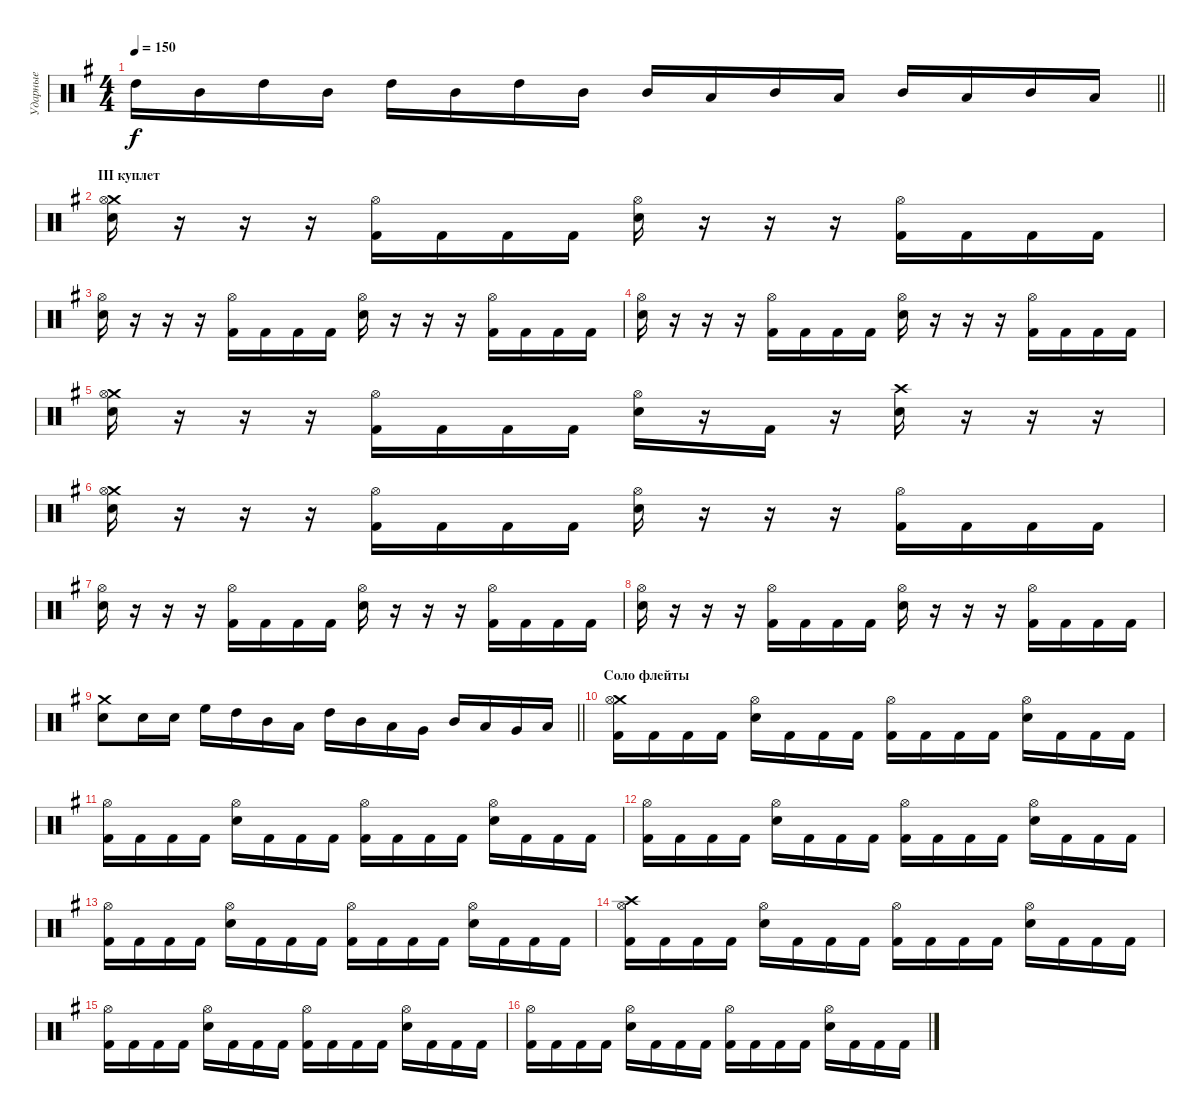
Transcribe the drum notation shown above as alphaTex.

\track ("Ударные" "Ударные") {instrument percussion}
\staff {score}
\articulation defaults
\ts (4 4)
\tempo 150
\clef neutral
\barLineRight lightlight
\ks eminor "High Tom (hit)".16{dy f} "Mid Tom (hit)".16 "High Tom (hit)".16 "Mid Tom (hit)".16 "High Tom (hit)".16 "Mid Tom (hit)".16 "High Tom (hit)".16 "Mid Tom (hit)".16 "Mid Tom (hit)".16 "Low Tom (hit)".16 "Mid Tom (hit)".16 "Low Tom (hit)".16 "Mid Tom (hit)".16 "Low Tom (hit)".16 "Mid Tom (hit)".16 "Low Tom (hit)".16
|
\section ("" "III куплет")
("Crash medium (hit)" "Electric Snare (hit)" "Hi-Hat (open)").16 r.16 r.16 r.16 ("Kick (hit) 2" "Hi-Hat (open)").16 "Kick (hit) 2".16 "Kick (hit) 2".16 "Kick (hit) 2".16 ("Electric Snare (hit)" "Hi-Hat (open)").16 r.16 r.16 r.16 ("Kick (hit) 2" "Hi-Hat (open)").16 "Kick (hit) 2".16 "Kick (hit) 2".16 "Kick (hit) 2".16 |
("Electric Snare (hit)" "Hi-Hat (open)").16 r.16 r.16 r.16 ("Kick (hit) 2" "Hi-Hat (open)").16 "Kick (hit) 2".16 "Kick (hit) 2".16 "Kick (hit) 2".16 ("Electric Snare (hit)" "Hi-Hat (open)").16 r.16 r.16 r.16 ("Kick (hit) 2" "Hi-Hat (open)").16 "Kick (hit) 2".16 "Kick (hit) 2".16 "Kick (hit) 2".16 |
("Electric Snare (hit)" "Hi-Hat (open)").16 r.16 r.16 r.16 ("Kick (hit) 2" "Hi-Hat (open)").16 "Kick (hit) 2".16 "Kick (hit) 2".16 "Kick (hit) 2".16 ("Electric Snare (hit)" "Hi-Hat (open)").16 r.16 r.16 r.16 ("Kick (hit) 2" "Hi-Hat (open)").16 "Kick (hit) 2".16 "Kick (hit) 2".16 "Kick (hit) 2".16 |
("Crash medium (hit)" "Electric Snare (hit)" "Hi-Hat (open)").16 r.16 r.16 r.16 ("Kick (hit) 2" "Hi-Hat (open)").16 "Kick (hit) 2".16 "Kick (hit) 2".16 "Kick (hit) 2".16 ("Electric Snare (hit)" "Hi-Hat (open)").16 r.16 "Kick (hit) 2".16 r.16 ("Crash high (hit)" "Electric Snare (hit)").16 r.16 r.16 r.16 |
("Crash medium (hit)" "Electric Snare (hit)" "Hi-Hat (open)").16 r.16 r.16 r.16 ("Kick (hit) 2" "Hi-Hat (open)").16 "Kick (hit) 2".16 "Kick (hit) 2".16 "Kick (hit) 2".16 ("Electric Snare (hit)" "Hi-Hat (open)").16 r.16 r.16 r.16 ("Kick (hit) 2" "Hi-Hat (open)").16 "Kick (hit) 2".16 "Kick (hit) 2".16 "Kick (hit) 2".16 |
("Electric Snare (hit)" "Hi-Hat (open)").16 r.16 r.16 r.16 ("Kick (hit) 2" "Hi-Hat (open)").16 "Kick (hit) 2".16 "Kick (hit) 2".16 "Kick (hit) 2".16 ("Electric Snare (hit)" "Hi-Hat (open)").16 r.16 r.16 r.16 ("Kick (hit) 2" "Hi-Hat (open)").16 "Kick (hit) 2".16 "Kick (hit) 2".16 "Kick (hit) 2".16 |
("Electric Snare (hit)" "Hi-Hat (open)").16 r.16 r.16 r.16 ("Kick (hit) 2" "Hi-Hat (open)").16 "Kick (hit) 2".16 "Kick (hit) 2".16 "Kick (hit) 2".16 ("Electric Snare (hit)" "Hi-Hat (open)").16 r.16 r.16 r.16 ("Kick (hit) 2" "Hi-Hat (open)").16 "Kick (hit) 2".16 "Kick (hit) 2".16 "Kick (hit) 2".16 |
\barLineRight lightlight
("Crash medium (hit)" "Electric Snare (hit)").8 "Electric Snare (hit)".16 "Electric Snare (hit)".16 "High Floor Tom (hit)".16 "High Tom (hit)".16 "Mid Tom (hit)".16 "Low Tom (hit)".16 "High Tom (hit)".16 "Mid Tom (hit)".16 "Low Tom (hit)".16 "Very Low Tom (hit)".16 "Mid Tom (hit)".16 "Low Tom (hit)".16 "Very Low Tom (hit)".16 "Low Floor Tom (hit)".16 |
\section ("" "Соло флейты")
("Crash medium (hit)" "Kick (hit) 2" "Hi-Hat (open)").16 "Kick (hit) 2".16 "Kick (hit) 2".16 "Kick (hit) 2".16 ("Electric Snare (hit)" "Hi-Hat (open)").16 "Kick (hit) 2".16 "Kick (hit) 2".16 "Kick (hit) 2".16 ("Kick (hit) 2" "Hi-Hat (open)").16 "Kick (hit) 2".16 "Kick (hit) 2".16 "Kick (hit) 2".16 ("Electric Snare (hit)" "Hi-Hat (open)").16 "Kick (hit) 2".16 "Kick (hit) 2".16 "Kick (hit) 2".16 |
("Kick (hit) 2" "Hi-Hat (open)").16 "Kick (hit) 2".16 "Kick (hit) 2".16 "Kick (hit) 2".16 ("Electric Snare (hit)" "Hi-Hat (open)").16 "Kick (hit) 2".16 "Kick (hit) 2".16 "Kick (hit) 2".16 ("Kick (hit) 2" "Hi-Hat (open)").16 "Kick (hit) 2".16 "Kick (hit) 2".16 "Kick (hit) 2".16 ("Electric Snare (hit)" "Hi-Hat (open)").16 "Kick (hit) 2".16 "Kick (hit) 2".16 "Kick (hit) 2".16 |
("Kick (hit) 2" "Hi-Hat (open)").16 "Kick (hit) 2".16 "Kick (hit) 2".16 "Kick (hit) 2".16 ("Electric Snare (hit)" "Hi-Hat (open)").16 "Kick (hit) 2".16 "Kick (hit) 2".16 "Kick (hit) 2".16 ("Kick (hit) 2" "Hi-Hat (open)").16 "Kick (hit) 2".16 "Kick (hit) 2".16 "Kick (hit) 2".16 ("Electric Snare (hit)" "Hi-Hat (open)").16 "Kick (hit) 2".16 "Kick (hit) 2".16 "Kick (hit) 2".16 |
("Kick (hit) 2" "Hi-Hat (open)").16 "Kick (hit) 2".16 "Kick (hit) 2".16 "Kick (hit) 2".16 ("Electric Snare (hit)" "Hi-Hat (open)").16 "Kick (hit) 2".16 "Kick (hit) 2".16 "Kick (hit) 2".16 ("Kick (hit) 2" "Hi-Hat (open)").16 "Kick (hit) 2".16 "Kick (hit) 2".16 "Kick (hit) 2".16 ("Electric Snare (hit)" "Hi-Hat (open)").16 "Kick (hit) 2".16 "Kick (hit) 2".16 "Kick (hit) 2".16 |
("Crash high (hit)" "Kick (hit) 2" "Hi-Hat (open)").16 "Kick (hit) 2".16 "Kick (hit) 2".16 "Kick (hit) 2".16 ("Electric Snare (hit)" "Hi-Hat (open)").16 "Kick (hit) 2".16 "Kick (hit) 2".16 "Kick (hit) 2".16 ("Kick (hit) 2" "Hi-Hat (open)").16 "Kick (hit) 2".16 "Kick (hit) 2".16 "Kick (hit) 2".16 ("Electric Snare (hit)" "Hi-Hat (open)").16 "Kick (hit) 2".16 "Kick (hit) 2".16 "Kick (hit) 2".16 |
("Kick (hit) 2" "Hi-Hat (open)").16 "Kick (hit) 2".16 "Kick (hit) 2".16 "Kick (hit) 2".16 ("Electric Snare (hit)" "Hi-Hat (open)").16 "Kick (hit) 2".16 "Kick (hit) 2".16 "Kick (hit) 2".16 ("Kick (hit) 2" "Hi-Hat (open)").16 "Kick (hit) 2".16 "Kick (hit) 2".16 "Kick (hit) 2".16 ("Electric Snare (hit)" "Hi-Hat (open)").16 "Kick (hit) 2".16 "Kick (hit) 2".16 "Kick (hit) 2".16 |
("Kick (hit) 2" "Hi-Hat (open)").16 "Kick (hit) 2".16 "Kick (hit) 2".16 "Kick (hit) 2".16 ("Electric Snare (hit)" "Hi-Hat (open)").16 "Kick (hit) 2".16 "Kick (hit) 2".16 "Kick (hit) 2".16 ("Kick (hit) 2" "Hi-Hat (open)").16 "Kick (hit) 2".16 "Kick (hit) 2".16 "Kick (hit) 2".16 ("Electric Snare (hit)" "Hi-Hat (open)").16 "Kick (hit) 2".16 "Kick (hit) 2".16 "Kick (hit) 2".16
